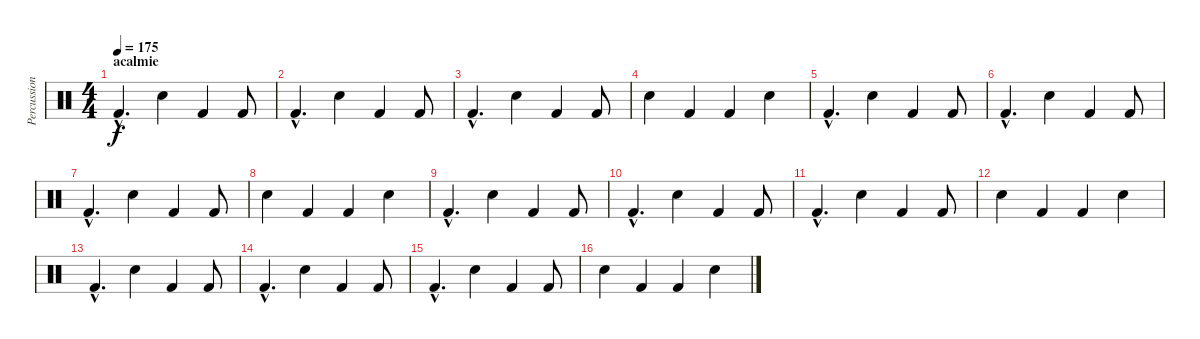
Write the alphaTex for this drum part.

\track ("Percussions" "Percussion") {instrument percussion}
\staff {score}
\articulation defaults
\ts (4 4)
\section ("" "acalmie")
\tempo 175
\clef neutral
\ks c "Kick (hit) 2"{hac}.4{d dy f} "Snare (hit) 2".4 "Kick (hit) 2".4 "Kick (hit) 2".8
|
"Kick (hit) 2"{hac}.4{d} "Snare (hit) 2".4 "Kick (hit) 2".4 "Kick (hit) 2".8 |
"Kick (hit) 2"{hac}.4{d} "Snare (hit) 2".4 "Kick (hit) 2".4 "Kick (hit) 2".8 |
"Snare (hit) 2".4 "Kick (hit) 2".4 "Kick (hit) 2".4 "Snare (hit) 2".4 |
"Kick (hit) 2"{hac}.4{d} "Snare (hit) 2".4 "Kick (hit) 2".4 "Kick (hit) 2".8 |
"Kick (hit) 2"{hac}.4{d} "Snare (hit) 2".4 "Kick (hit) 2".4 "Kick (hit) 2".8 |
"Kick (hit) 2"{hac}.4{d} "Snare (hit) 2".4 "Kick (hit) 2".4 "Kick (hit) 2".8 |
"Snare (hit) 2".4 "Kick (hit) 2".4 "Kick (hit) 2".4 "Snare (hit) 2".4 |
"Kick (hit) 2"{hac}.4{d} "Snare (hit) 2".4 "Kick (hit) 2".4 "Kick (hit) 2".8 |
"Kick (hit) 2"{hac}.4{d} "Snare (hit) 2".4 "Kick (hit) 2".4 "Kick (hit) 2".8 |
"Kick (hit) 2"{hac}.4{d} "Snare (hit) 2".4 "Kick (hit) 2".4 "Kick (hit) 2".8 |
"Snare (hit) 2".4 "Kick (hit) 2".4 "Kick (hit) 2".4 "Snare (hit) 2".4 |
"Kick (hit) 2"{hac}.4{d} "Snare (hit) 2".4 "Kick (hit) 2".4 "Kick (hit) 2".8 |
"Kick (hit) 2"{hac}.4{d} "Snare (hit) 2".4 "Kick (hit) 2".4 "Kick (hit) 2".8 |
"Kick (hit) 2"{hac}.4{d} "Snare (hit) 2".4 "Kick (hit) 2".4 "Kick (hit) 2".8 |
"Snare (hit) 2".4 "Kick (hit) 2".4 "Kick (hit) 2".4 "Snare (hit) 2".4
